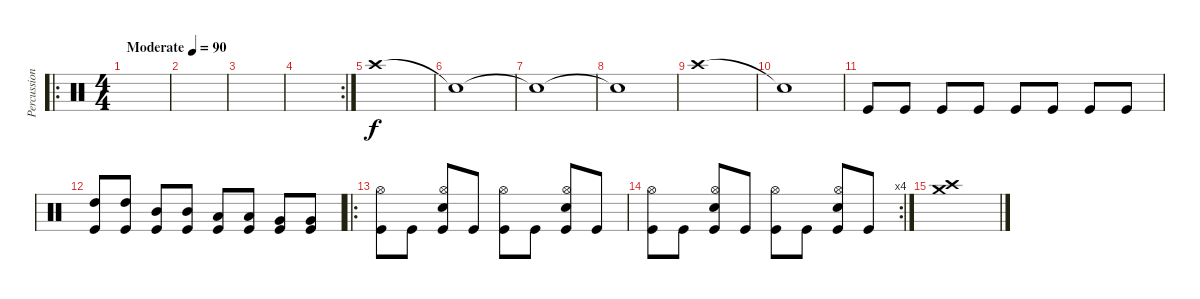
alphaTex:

\track ("Percussion" "Percussion") {instrument percussion}
\staff {score}
\articulation defaults
\ro
\ts (4 4)
\tempo (90 "Moderate")
\clef neutral
\ks c
|
|
|
\rc 2
|
"Crash high (hit)".1 |
"Snare (hit)"{t}.1 |
"Snare (hit)"{t}.1 |
"Snare (hit)"{t}.1 |
"Crash high (hit)".1 |
"Snare (hit)"{t}.1 |
"Kick (hit)".8 "Kick (hit)".8 "Kick (hit)".8 "Kick (hit)".8 "Kick (hit)".8 "Kick (hit)".8 "Kick (hit)".8 "Kick (hit)".8 |
("High Tom (hit)" "Kick (hit)").8 ("High Tom (hit)" "Kick (hit)").8 ("Mid Tom (hit)" "Kick (hit)").8 ("Mid Tom (hit)" "Kick (hit)").8 ("Low Tom (hit)" "Kick (hit)").8 ("Low Tom (hit)" "Kick (hit)").8 ("Very Low Tom (hit)" "Kick (hit)").8 ("Very Low Tom (hit)" "Kick (hit)").8 |
\ro
("Hi-Hat (open)" "Kick (hit)").8 "Kick (hit)".8 ("Hi-Hat (open)" "Electric Snare (hit)" "Kick (hit)").8 "Kick (hit)".8 ("Hi-Hat (open)" "Kick (hit)").8 "Kick (hit)".8 ("Hi-Hat (open)" "Electric Snare (hit)" "Kick (hit)").8 "Kick (hit)".8 |
\rc 4
("Hi-Hat (open)" "Kick (hit)").8 "Kick (hit)".8 ("Hi-Hat (open)" "Electric Snare (hit)" "Kick (hit)").8 "Kick (hit)".8 ("Hi-Hat (open)" "Kick (hit)").8 "Kick (hit)".8 ("Hi-Hat (open)" "Electric Snare (hit)" "Kick (hit)").8 "Kick (hit)".8 |
("Crash medium (hit)" "Crash high (hit)").1
